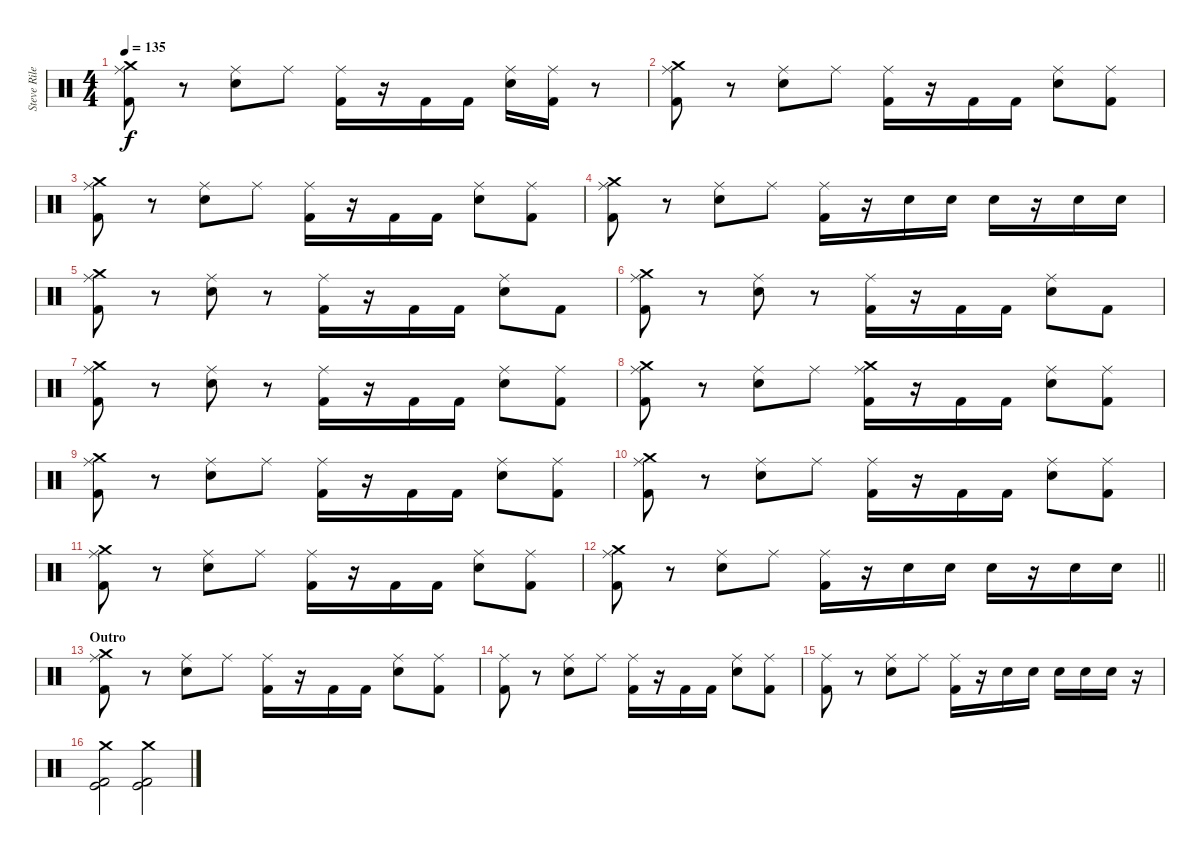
\track ("Steve Riley" "Steve Rile") {instrument percussion}
\staff {score}
\articulation defaults
\ts (4 4)
\tempo 135
\clef neutral
\ks c
("Crash medium (hit)" "Ride (middle)" "Kick (hit) 2").8{dy f} r.8 ("Ride (middle)" "Snare (hit) 2").8 "Ride (middle)".8 ("Ride (middle)" "Kick (hit) 2").16 r.16 "Kick (hit) 2".16 "Kick (hit) 2".16 ("Ride (middle)" "Snare (hit) 2").16 ("Ride (middle)" "Kick (hit) 2").16 r.8 |
("Crash medium (hit)" "Ride (middle)" "Kick (hit) 2").8 r.8 ("Ride (middle)" "Snare (hit) 2").8 "Ride (middle)".8 ("Ride (middle)" "Kick (hit) 2").16 r.16 "Kick (hit) 2".16 "Kick (hit) 2".16 ("Ride (middle)" "Snare (hit) 2").8 ("Ride (middle)" "Kick (hit) 2").8 |
("Crash medium (hit)" "Ride (middle)" "Kick (hit) 2").8 r.8 ("Ride (middle)" "Snare (hit) 2").8 "Ride (middle)".8 ("Ride (middle)" "Kick (hit) 2").16 r.16 "Kick (hit) 2".16 "Kick (hit) 2".16 ("Ride (middle)" "Snare (hit) 2").8 ("Ride (middle)" "Kick (hit) 2").8 |
("Crash medium (hit)" "Ride (middle)" "Kick (hit) 2").8 r.8 ("Ride (middle)" "Snare (hit) 2").8 "Ride (middle)".8 ("Ride (middle)" "Kick (hit) 2").16 r.16 "Snare (hit) 2".16 "Snare (hit) 2".16 "Snare (hit) 2".16 r.16 "Snare (hit) 2".16 "Snare (hit) 2".16 |
("Crash medium (hit)" "Ride (middle)" "Kick (hit) 2").8 r.8 ("Ride (middle)" "Snare (hit) 2").8 r.8 ("Ride (middle)" "Kick (hit) 2").16 r.16 "Kick (hit) 2".16 "Kick (hit) 2".16 ("Ride (middle)" "Snare (hit) 2").8 "Kick (hit) 2".8 |
("Crash medium (hit)" "Ride (middle)" "Kick (hit) 2").8 r.8 ("Ride (middle)" "Snare (hit) 2").8 r.8 ("Ride (middle)" "Kick (hit) 2").16 r.16 "Kick (hit) 2".16 "Kick (hit) 2".16 ("Ride (middle)" "Snare (hit) 2").8 "Kick (hit) 2".8 |
("Crash medium (hit)" "Ride (middle)" "Kick (hit) 2").8 r.8 ("Ride (middle)" "Snare (hit) 2").8 r.8 ("Ride (middle)" "Kick (hit) 2").16 r.16 "Kick (hit) 2".16 "Kick (hit) 2".16 ("Ride (middle)" "Snare (hit) 2").8 ("Ride (middle)" "Kick (hit) 2").8 |
("Crash medium (hit)" "Ride (middle)" "Kick (hit) 2").8 r.8 ("Ride (middle)" "Snare (hit) 2").8 "Ride (middle)".8 ("Crash medium (hit)" "Ride (middle)" "Kick (hit) 2").16 r.16 "Kick (hit) 2".16 "Kick (hit) 2".16 ("Ride (middle)" "Snare (hit) 2").8 ("Ride (middle)" "Kick (hit) 2").8 |
("Crash medium (hit)" "Ride (middle)" "Kick (hit) 2").8 r.8 ("Ride (middle)" "Snare (hit) 2").8 "Ride (middle)".8 ("Ride (middle)" "Kick (hit) 2").16 r.16 "Kick (hit) 2".16 "Kick (hit) 2".16 ("Ride (middle)" "Snare (hit) 2").8 ("Ride (middle)" "Kick (hit) 2").8 |
("Crash medium (hit)" "Ride (middle)" "Kick (hit) 2").8 r.8 ("Ride (middle)" "Snare (hit) 2").8 "Ride (middle)".8 ("Ride (middle)" "Kick (hit) 2").16 r.16 "Kick (hit) 2".16 "Kick (hit) 2".16 ("Ride (middle)" "Snare (hit) 2").8 ("Ride (middle)" "Kick (hit) 2").8 |
("Crash medium (hit)" "Ride (middle)" "Kick (hit) 2").8 r.8 ("Ride (middle)" "Snare (hit) 2").8 "Ride (middle)".8 ("Ride (middle)" "Kick (hit) 2").16 r.16 "Kick (hit) 2".16 "Kick (hit) 2".16 ("Ride (middle)" "Snare (hit) 2").8 ("Ride (middle)" "Kick (hit) 2").8 |
\barLineRight lightlight
("Crash medium (hit)" "Ride (middle)" "Kick (hit) 2").8 r.8 ("Ride (middle)" "Snare (hit) 2").8 "Ride (middle)".8 ("Ride (middle)" "Kick (hit) 2").16 r.16 "Snare (hit) 2".16 "Snare (hit) 2".16 "Snare (hit) 2".16 r.16 "Snare (hit) 2".16 "Snare (hit) 2".16 |
\section ("" "Outro")
("Crash medium (hit)" "Ride (middle)" "Kick (hit) 2").8 r.8 ("Ride (middle)" "Snare (hit) 2").8 "Ride (middle)".8 ("Ride (middle)" "Kick (hit) 2").16 r.16 "Kick (hit) 2".16 "Kick (hit) 2".16 ("Ride (middle)" "Snare (hit) 2").8 ("Ride (middle)" "Kick (hit) 2").8 |
("Ride (middle)" "Kick (hit) 2").8 r.8 ("Ride (middle)" "Snare (hit) 2").8 "Ride (middle)".8 ("Ride (middle)" "Kick (hit) 2").16 r.16 "Kick (hit) 2".16 "Kick (hit) 2".16 ("Ride (middle)" "Snare (hit) 2").8 ("Ride (middle)" "Kick (hit) 2").8 |
("Ride (middle)" "Kick (hit) 2").8 r.8 ("Ride (middle)" "Snare (hit) 2").8 "Ride (middle)".8 ("Ride (middle)" "Kick (hit) 2").16 r.16 "Snare (hit) 2".16 "Snare (hit) 2".16 "Snare (hit) 2".16 "Snare (hit) 2".16 "Snare (hit) 2".16 r.16 |
("Crash medium (hit)" "Kick (hit)" "Kick (hit) 2").2 ("Crash medium (hit)" "Kick (hit)" "Kick (hit) 2").2
